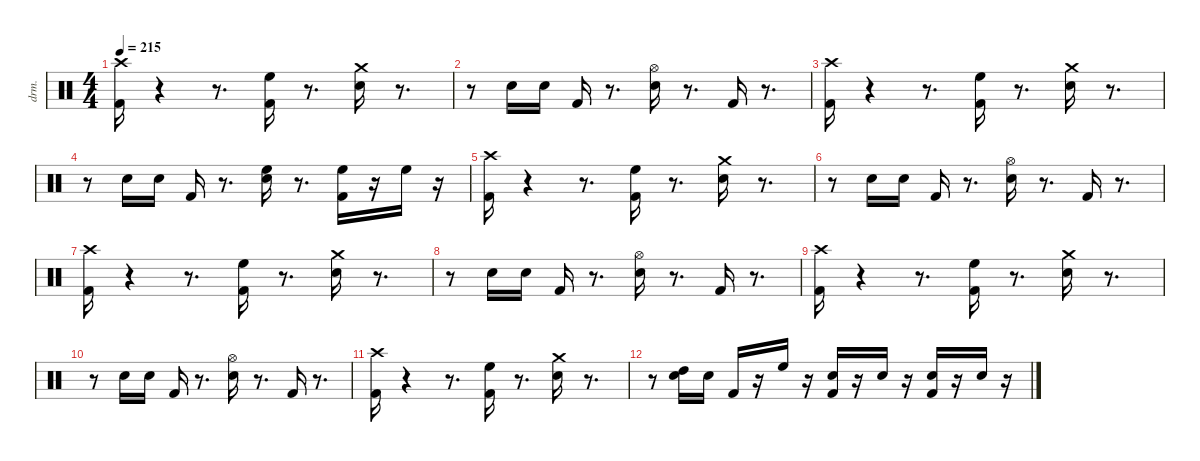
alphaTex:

\defaultSystemsLayout 4
\hideDynamics
\bracketExtendMode nobrackets
\otherSystemsTrackNameOrientation horizontal
\track ("drums(暫定)" "drm.") {instrument percussion}
\staff {score}
\articulation defaults
\ts (4 4)
\tempo 215
\clef neutral
\ks aminor
("Kick (hit) 2" "Crash high (hit)"{acc #}).16{dy fff beam Down} r.4{beam Down} r.8{d beam Down} ("Kick (hit) 2" "High Floor Tom (hit)").16{dy ff beam Down} r.8{d beam Down} ("Snare (hit) 2" "Crash medium (hit)").16{beam Down} r.8{d beam Down} |
r.8{beam Down} "Snare (hit) 2".16{dy ppp beam Down} "Snare (hit) 2".16{beam Down} "Kick (hit) 2".16{dy ff beam Up} r.8{d beam Up} ("Snare (hit) 2" "Hi-Hat (open)"{acc #}).16{beam Down} r.8{d beam Down} "Kick (hit) 2".16{dy mf beam Up} r.8{d beam Up} |
("Kick (hit) 2" "Crash high (hit)"{acc #}).16{dy fff beam Down} r.4{beam Down} r.8{d beam Down} ("Kick (hit) 2" "High Floor Tom (hit)").16{dy ff beam Down} r.8{d beam Down} ("Snare (hit) 2" "Crash medium (hit)").16{beam Down} r.8{d beam Down} |
r.8{beam Down} "Snare (hit) 2".16{dy ppp beam Down} "Snare (hit) 2".16{beam Down} "Kick (hit) 2".16{dy ff beam Up} r.8{d beam Up} ("Snare (hit) 2" "High Floor Tom (hit)").16{beam Down} r.8{d beam Down} ("Kick (hit) 2" "High Floor Tom (hit)").16{dy mf beam Down} r.16{beam Down} "High Floor Tom (hit)".16{dy pp beam Down} r.16{beam Down} |
("Kick (hit) 2" "Crash high (hit)"{acc #}).16{dy fff beam Down} r.4{beam Down} r.8{d beam Down} ("Kick (hit) 2" "High Floor Tom (hit)").16{dy ff beam Down} r.8{d beam Down} ("Snare (hit) 2" "Crash medium (hit)").16{beam Down} r.8{d beam Down} |
r.8{beam Down} "Snare (hit) 2".16{dy ppp beam Down} "Snare (hit) 2".16{beam Down} "Kick (hit) 2".16{dy ff beam Up} r.8{d beam Up} ("Snare (hit) 2" "Hi-Hat (open)"{acc #}).16{beam Down} r.8{d beam Down} "Kick (hit) 2".16{dy mf beam Up} r.8{d beam Up} |
("Kick (hit) 2" "Crash high (hit)"{acc #}).16{dy fff beam Down} r.4{beam Down} r.8{d beam Down} ("Kick (hit) 2" "High Floor Tom (hit)").16{dy ff beam Down} r.8{d beam Down} ("Snare (hit) 2" "Crash medium (hit)").16{beam Down} r.8{d beam Down} |
r.8{beam Down} "Snare (hit) 2".16{dy ppp beam Down} "Snare (hit) 2".16{beam Down} "Kick (hit) 2".16{dy ff beam Up} r.8{d beam Up} ("Snare (hit) 2" "Hi-Hat (open)"{acc #}).16{beam Down} r.8{d beam Down} "Kick (hit) 2".16{dy mf beam Up} r.8{d beam Up} |
("Kick (hit) 2" "Crash high (hit)"{acc #}).16{dy fff beam Down} r.4{beam Down} r.8{d beam Down} ("Kick (hit) 2" "High Floor Tom (hit)").16{dy ff beam Down} r.8{d beam Down} ("Snare (hit) 2" "Crash medium (hit)").16{beam Down} r.8{d beam Down} |
r.8{beam Down} "Snare (hit) 2".16{dy ppp beam Down} "Snare (hit) 2".16{beam Down} "Kick (hit) 2".16{dy ff beam Up} r.8{d beam Up} ("Snare (hit) 2" "Hi-Hat (open)"{acc #}).16{beam Down} r.8{d beam Down} "Kick (hit) 2".16{dy mf beam Up} r.8{d beam Up} |
("Kick (hit) 2" "Crash high (hit)"{acc #}).16{dy fff beam Down} r.4{beam Down} r.8{d beam Down} ("Kick (hit) 2" "High Floor Tom (hit)").16{dy ff beam Down} r.8{d beam Down} ("Snare (hit) 2" "Crash medium (hit)").16{beam Down} r.8{d beam Down} |
r.8{beam Down} ("Snare (hit) 2" "High Tom (hit)").16{dy ppp beam Down} "Snare (hit) 2".16{beam Down} "Kick (hit) 2".16{dy mf beam Up} r.16{beam Up} "High Floor Tom (hit)".16{dy ff beam Down} r.16{beam Down} ("Kick (hit) 2" "Snare (hit) 2").16{beam Up} r.16{beam Up} "Snare (hit) 2".16{dy mf beam Down} r.16{beam Down} ("Kick (hit) 2" "Snare (hit) 2").16{beam Up} r.16{beam Up} "Snare (hit) 2".16{dy fff beam Down} r.16{beam Down}
